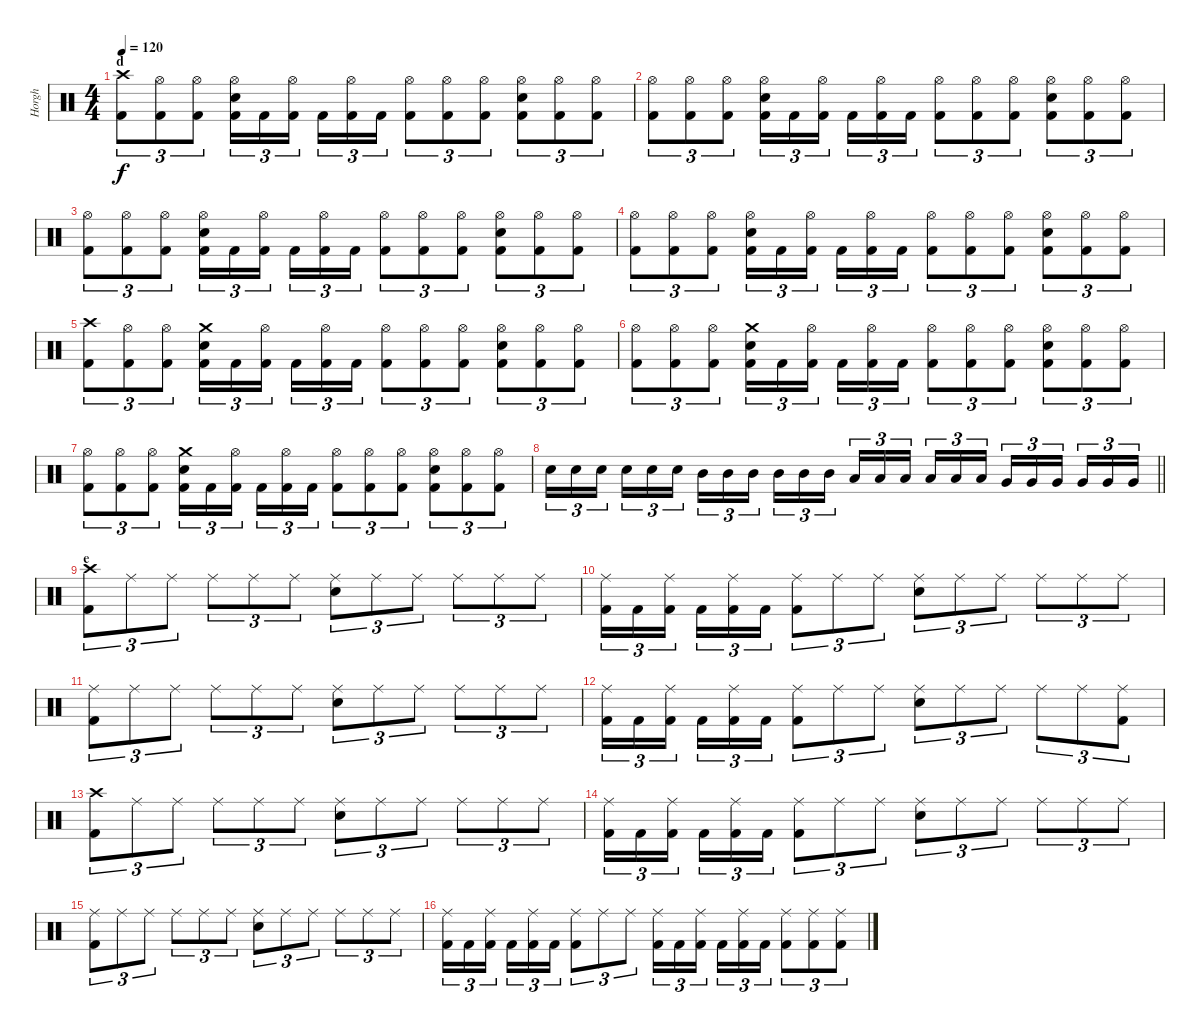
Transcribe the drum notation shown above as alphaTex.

\track ("Horgh" "Horgh") {instrument percussion}
\staff {score}
\articulation defaults
\ts (4 4)
\section ("" "d")
\tempo 120
\clef neutral
\ks c
("Crash high (hit)" "Kick (hit) 2").8{tu (3 2) dy f} ("Hi-Hat (open)" "Kick (hit) 2").8{tu (3 2)} ("Hi-Hat (open)" "Kick (hit) 2").8{tu (3 2)} ("Hi-Hat (open)" "Electric Snare (hit)" "Kick (hit) 2").16{tu (3 2)} "Kick (hit) 2".16{tu (3 2)} ("Hi-Hat (open)" "Kick (hit) 2").16{tu (3 2) beam splitsecondary} "Kick (hit) 2".16{tu (3 2)} ("Hi-Hat (open)" "Kick (hit) 2").16{tu (3 2)} "Kick (hit) 2".16{tu (3 2)} ("Hi-Hat (open)" "Kick (hit) 2").8{tu (3 2)} ("Hi-Hat (open)" "Kick (hit) 2").8{tu (3 2)} ("Hi-Hat (open)" "Kick (hit) 2").8{tu (3 2)} ("Hi-Hat (open)" "Electric Snare (hit)" "Kick (hit) 2").8{tu (3 2)} ("Hi-Hat (open)" "Kick (hit) 2").8{tu (3 2)} ("Hi-Hat (open)" "Kick (hit) 2").8{tu (3 2)} |
("Hi-Hat (open)" "Kick (hit) 2").8{tu (3 2)} ("Hi-Hat (open)" "Kick (hit) 2").8{tu (3 2)} ("Hi-Hat (open)" "Kick (hit) 2").8{tu (3 2)} ("Hi-Hat (open)" "Electric Snare (hit)" "Kick (hit) 2").16{tu (3 2)} "Kick (hit) 2".16{tu (3 2)} ("Hi-Hat (open)" "Kick (hit) 2").16{tu (3 2) beam splitsecondary} "Kick (hit) 2".16{tu (3 2)} ("Hi-Hat (open)" "Kick (hit) 2").16{tu (3 2)} "Kick (hit) 2".16{tu (3 2)} ("Hi-Hat (open)" "Kick (hit) 2").8{tu (3 2)} ("Hi-Hat (open)" "Kick (hit) 2").8{tu (3 2)} ("Hi-Hat (open)" "Kick (hit) 2").8{tu (3 2)} ("Hi-Hat (open)" "Electric Snare (hit)" "Kick (hit) 2").8{tu (3 2)} ("Hi-Hat (open)" "Kick (hit) 2").8{tu (3 2)} ("Hi-Hat (open)" "Kick (hit) 2").8{tu (3 2)} |
("Hi-Hat (open)" "Kick (hit) 2").8{tu (3 2)} ("Hi-Hat (open)" "Kick (hit) 2").8{tu (3 2)} ("Hi-Hat (open)" "Kick (hit) 2").8{tu (3 2)} ("Hi-Hat (open)" "Electric Snare (hit)" "Kick (hit) 2").16{tu (3 2)} "Kick (hit) 2".16{tu (3 2)} ("Hi-Hat (open)" "Kick (hit) 2").16{tu (3 2) beam splitsecondary} "Kick (hit) 2".16{tu (3 2)} ("Hi-Hat (open)" "Kick (hit) 2").16{tu (3 2)} "Kick (hit) 2".16{tu (3 2)} ("Hi-Hat (open)" "Kick (hit) 2").8{tu (3 2)} ("Hi-Hat (open)" "Kick (hit) 2").8{tu (3 2)} ("Hi-Hat (open)" "Kick (hit) 2").8{tu (3 2)} ("Hi-Hat (open)" "Electric Snare (hit)" "Kick (hit) 2").8{tu (3 2)} ("Hi-Hat (open)" "Kick (hit) 2").8{tu (3 2)} ("Hi-Hat (open)" "Kick (hit) 2").8{tu (3 2)} |
("Hi-Hat (open)" "Kick (hit) 2").8{tu (3 2)} ("Hi-Hat (open)" "Kick (hit) 2").8{tu (3 2)} ("Hi-Hat (open)" "Kick (hit) 2").8{tu (3 2)} ("Hi-Hat (open)" "Electric Snare (hit)" "Kick (hit) 2").16{tu (3 2)} "Kick (hit) 2".16{tu (3 2)} ("Hi-Hat (open)" "Kick (hit) 2").16{tu (3 2) beam splitsecondary} "Kick (hit) 2".16{tu (3 2)} ("Hi-Hat (open)" "Kick (hit) 2").16{tu (3 2)} "Kick (hit) 2".16{tu (3 2)} ("Hi-Hat (open)" "Kick (hit) 2").8{tu (3 2)} ("Hi-Hat (open)" "Kick (hit) 2").8{tu (3 2)} ("Hi-Hat (open)" "Kick (hit) 2").8{tu (3 2)} ("Hi-Hat (open)" "Electric Snare (hit)" "Kick (hit) 2").8{tu (3 2)} ("Hi-Hat (open)" "Kick (hit) 2").8{tu (3 2)} ("Hi-Hat (open)" "Kick (hit) 2").8{tu (3 2)} |
("Crash high (hit)" "Kick (hit) 2").8{tu (3 2)} ("Hi-Hat (open)" "Kick (hit) 2").8{tu (3 2)} ("Hi-Hat (open)" "Kick (hit) 2").8{tu (3 2)} ("Crash medium (hit)" "Electric Snare (hit)" "Kick (hit) 2").16{tu (3 2)} "Kick (hit) 2".16{tu (3 2)} ("Hi-Hat (open)" "Kick (hit) 2").16{tu (3 2) beam splitsecondary} "Kick (hit) 2".16{tu (3 2)} ("Hi-Hat (open)" "Kick (hit) 2").16{tu (3 2)} "Kick (hit) 2".16{tu (3 2)} ("Hi-Hat (open)" "Kick (hit) 2").8{tu (3 2)} ("Hi-Hat (open)" "Kick (hit) 2").8{tu (3 2)} ("Hi-Hat (open)" "Kick (hit) 2").8{tu (3 2)} ("Hi-Hat (open)" "Electric Snare (hit)" "Kick (hit) 2").8{tu (3 2)} ("Hi-Hat (open)" "Kick (hit) 2").8{tu (3 2)} ("Hi-Hat (open)" "Kick (hit) 2").8{tu (3 2)} |
("Hi-Hat (open)" "Kick (hit) 2").8{tu (3 2)} ("Hi-Hat (open)" "Kick (hit) 2").8{tu (3 2)} ("Hi-Hat (open)" "Kick (hit) 2").8{tu (3 2)} ("Crash medium (hit)" "Electric Snare (hit)" "Kick (hit) 2").16{tu (3 2)} "Kick (hit) 2".16{tu (3 2)} ("Hi-Hat (open)" "Kick (hit) 2").16{tu (3 2) beam splitsecondary} "Kick (hit) 2".16{tu (3 2)} ("Hi-Hat (open)" "Kick (hit) 2").16{tu (3 2)} "Kick (hit) 2".16{tu (3 2)} ("Hi-Hat (open)" "Kick (hit) 2").8{tu (3 2)} ("Hi-Hat (open)" "Kick (hit) 2").8{tu (3 2)} ("Hi-Hat (open)" "Kick (hit) 2").8{tu (3 2)} ("Hi-Hat (open)" "Electric Snare (hit)" "Kick (hit) 2").8{tu (3 2)} ("Hi-Hat (open)" "Kick (hit) 2").8{tu (3 2)} ("Hi-Hat (open)" "Kick (hit) 2").8{tu (3 2)} |
("Hi-Hat (open)" "Kick (hit) 2").8{tu (3 2)} ("Hi-Hat (open)" "Kick (hit) 2").8{tu (3 2)} ("Hi-Hat (open)" "Kick (hit) 2").8{tu (3 2)} ("Crash medium (hit)" "Electric Snare (hit)" "Kick (hit) 2").16{tu (3 2)} "Kick (hit) 2".16{tu (3 2)} ("Hi-Hat (open)" "Kick (hit) 2").16{tu (3 2) beam splitsecondary} "Kick (hit) 2".16{tu (3 2)} ("Hi-Hat (open)" "Kick (hit) 2").16{tu (3 2)} "Kick (hit) 2".16{tu (3 2)} ("Hi-Hat (open)" "Kick (hit) 2").8{tu (3 2)} ("Hi-Hat (open)" "Kick (hit) 2").8{tu (3 2)} ("Hi-Hat (open)" "Kick (hit) 2").8{tu (3 2)} ("Hi-Hat (open)" "Electric Snare (hit)" "Kick (hit) 2").8{tu (3 2)} ("Hi-Hat (open)" "Kick (hit) 2").8{tu (3 2)} ("Hi-Hat (open)" "Kick (hit) 2").8{tu (3 2)} |
\barLineRight lightlight "Electric Snare (hit)".16{tu (3 2)} "Electric Snare (hit)".16{tu (3 2)} "Electric Snare (hit)".16{tu (3 2) beam splitsecondary} "Electric Snare (hit)".16{tu (3 2)} "Electric Snare (hit)".16{tu (3 2)} "Electric Snare (hit)".16{tu (3 2)} "Mid Tom (hit)".16{tu (3 2)} "Mid Tom (hit)".16{tu (3 2)} "Mid Tom (hit)".16{tu (3 2) beam splitsecondary} "Mid Tom (hit)".16{tu (3 2)} "Mid Tom (hit)".16{tu (3 2)} "Mid Tom (hit)".16{tu (3 2)} "Low Tom (hit)".16{tu (3 2)} "Low Tom (hit)".16{tu (3 2)} "Low Tom (hit)".16{tu (3 2) beam splitsecondary} "Low Tom (hit)".16{tu (3 2)} "Low Tom (hit)".16{tu (3 2)} "Low Tom (hit)".16{tu (3 2)} "Very Low Tom (hit)".16{tu (3 2)} "Very Low Tom (hit)".16{tu (3 2)} "Very Low Tom (hit)".16{tu (3 2) beam splitsecondary} "Very Low Tom (hit)".16{tu (3 2)} "Very Low Tom (hit)".16{tu (3 2)} "Very Low Tom (hit)".16{tu (3 2)}
|
\section ("" "e")
("Crash high (hit)" "Kick (hit) 2").8{tu (3 2)} "Ride (middle)".8{tu (3 2)} "Ride (middle)".8{tu (3 2)} "Ride (middle)".8{tu (3 2)} "Ride (middle)".8{tu (3 2)} "Ride (middle)".8{tu (3 2)} ("Ride (middle)" "Electric Snare (hit)").8{tu (3 2)} "Ride (middle)".8{tu (3 2)} "Ride (middle)".8{tu (3 2)} "Ride (middle)".8{tu (3 2)} "Ride (middle)".8{tu (3 2)} "Ride (middle)".8{tu (3 2)} |
("Ride (middle)" "Kick (hit) 2").16{tu (3 2)} "Kick (hit) 2".16{tu (3 2)} ("Ride (middle)" "Kick (hit) 2").16{tu (3 2) beam splitsecondary} "Kick (hit) 2".16{tu (3 2)} ("Ride (middle)" "Kick (hit) 2").16{tu (3 2)} "Kick (hit) 2".16{tu (3 2)} ("Ride (middle)" "Kick (hit) 2").8{tu (3 2)} "Ride (middle)".8{tu (3 2)} "Ride (middle)".8{tu (3 2)} ("Ride (middle)" "Electric Snare (hit)").8{tu (3 2)} "Ride (middle)".8{tu (3 2)} "Ride (middle)".8{tu (3 2)} "Ride (middle)".8{tu (3 2)} "Ride (middle)".8{tu (3 2)} "Ride (middle)".8{tu (3 2)} |
("Ride (middle)" "Kick (hit) 2").8{tu (3 2)} "Ride (middle)".8{tu (3 2)} "Ride (middle)".8{tu (3 2)} "Ride (middle)".8{tu (3 2)} "Ride (middle)".8{tu (3 2)} "Ride (middle)".8{tu (3 2)} ("Ride (middle)" "Electric Snare (hit)").8{tu (3 2)} "Ride (middle)".8{tu (3 2)} "Ride (middle)".8{tu (3 2)} "Ride (middle)".8{tu (3 2)} "Ride (middle)".8{tu (3 2)} "Ride (middle)".8{tu (3 2)} |
("Ride (middle)" "Kick (hit) 2").16{tu (3 2)} "Kick (hit) 2".16{tu (3 2)} ("Ride (middle)" "Kick (hit) 2").16{tu (3 2) beam splitsecondary} "Kick (hit) 2".16{tu (3 2)} ("Ride (middle)" "Kick (hit) 2").16{tu (3 2)} "Kick (hit) 2".16{tu (3 2)} ("Ride (middle)" "Kick (hit) 2").8{tu (3 2)} "Ride (middle)".8{tu (3 2)} "Ride (middle)".8{tu (3 2)} ("Ride (middle)" "Electric Snare (hit)").8{tu (3 2)} "Ride (middle)".8{tu (3 2)} "Ride (middle)".8{tu (3 2)} "Ride (middle)".8{tu (3 2)} "Ride (middle)".8{tu (3 2)} ("Ride (middle)" "Kick (hit) 2").8{tu (3 2)} |
("Crash high (hit)" "Kick (hit) 2").8{tu (3 2)} "Ride (middle)".8{tu (3 2)} "Ride (middle)".8{tu (3 2)} "Ride (middle)".8{tu (3 2)} "Ride (middle)".8{tu (3 2)} "Ride (middle)".8{tu (3 2)} ("Ride (middle)" "Electric Snare (hit)").8{tu (3 2)} "Ride (middle)".8{tu (3 2)} "Ride (middle)".8{tu (3 2)} "Ride (middle)".8{tu (3 2)} "Ride (middle)".8{tu (3 2)} "Ride (middle)".8{tu (3 2)} |
("Ride (middle)" "Kick (hit) 2").16{tu (3 2)} "Kick (hit) 2".16{tu (3 2)} ("Ride (middle)" "Kick (hit) 2").16{tu (3 2) beam splitsecondary} "Kick (hit) 2".16{tu (3 2)} ("Ride (middle)" "Kick (hit) 2").16{tu (3 2)} "Kick (hit) 2".16{tu (3 2)} ("Ride (middle)" "Kick (hit) 2").8{tu (3 2)} "Ride (middle)".8{tu (3 2)} "Ride (middle)".8{tu (3 2)} ("Ride (middle)" "Electric Snare (hit)").8{tu (3 2)} "Ride (middle)".8{tu (3 2)} "Ride (middle)".8{tu (3 2)} "Ride (middle)".8{tu (3 2)} "Ride (middle)".8{tu (3 2)} "Ride (middle)".8{tu (3 2)} |
("Ride (middle)" "Kick (hit) 2").8{tu (3 2)} "Ride (middle)".8{tu (3 2)} "Ride (middle)".8{tu (3 2)} "Ride (middle)".8{tu (3 2)} "Ride (middle)".8{tu (3 2)} "Ride (middle)".8{tu (3 2)} ("Ride (middle)" "Electric Snare (hit)").8{tu (3 2)} "Ride (middle)".8{tu (3 2)} "Ride (middle)".8{tu (3 2)} "Ride (middle)".8{tu (3 2)} "Ride (middle)".8{tu (3 2)} "Ride (middle)".8{tu (3 2)} |
("Ride (middle)" "Kick (hit) 2").16{tu (3 2)} "Kick (hit) 2".16{tu (3 2)} ("Ride (middle)" "Kick (hit) 2").16{tu (3 2) beam splitsecondary} "Kick (hit) 2".16{tu (3 2)} ("Ride (middle)" "Kick (hit) 2").16{tu (3 2)} "Kick (hit) 2".16{tu (3 2)} ("Ride (middle)" "Kick (hit) 2").8{tu (3 2)} "Ride (middle)".8{tu (3 2)} "Ride (middle)".8{tu (3 2)} ("Ride (middle)" "Kick (hit) 2").16{tu (3 2)} "Kick (hit) 2".16{tu (3 2)} ("Ride (middle)" "Kick (hit) 2").16{tu (3 2) beam splitsecondary} "Kick (hit) 2".16{tu (3 2)} ("Ride (middle)" "Kick (hit) 2").16{tu (3 2)} "Kick (hit) 2".16{tu (3 2)} ("Ride (middle)" "Kick (hit) 2").8{tu (3 2)} ("Ride (middle)" "Kick (hit) 2").8{tu (3 2)} ("Ride (middle)" "Kick (hit) 2").8{tu (3 2)}
